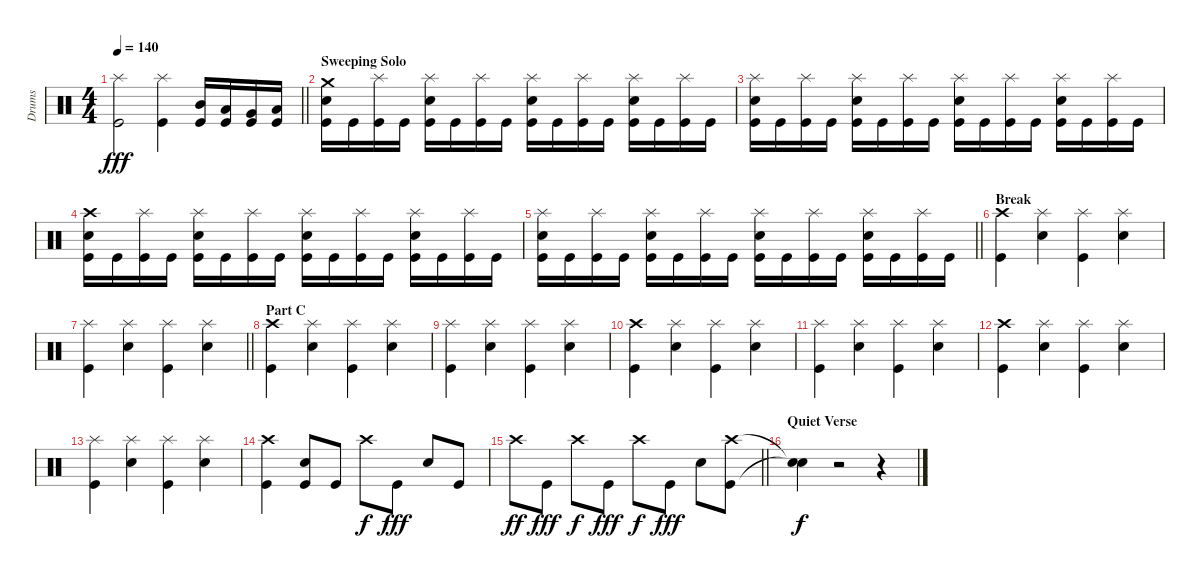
\track ("Drums" "Drums") {instrument percussion}
\staff {score}
\articulation defaults
\ts (4 4)
\tempo 140
\clef neutral
\barLineRight lightlight
\ks c
("Splash (hit)" "Kick (hit)").2{dy fff} ("Splash (hit)" "Kick (hit)").4 ("Mid Tom (hit)" "Kick (hit)").16 ("Low Tom (hit)" "Kick (hit)").16 ("Very Low Tom (hit)" "Kick (hit)").16 ("Low Floor Tom (hit)" "Kick (hit)").16 |
\section ("" "Sweeping Solo")
("Crash medium (hit)" "Electric Snare (hit)" "Kick (hit)").16 "Kick (hit)".16 ("Splash (hit)" "Kick (hit)").16 "Kick (hit)".16 ("Splash (hit)" "Electric Snare (hit)" "Kick (hit)").16 "Kick (hit)".16 ("Splash (hit)" "Kick (hit)").16 "Kick (hit)".16 ("Splash (hit)" "Electric Snare (hit)" "Kick (hit)").16 "Kick (hit)".16 ("Splash (hit)" "Kick (hit)").16 "Kick (hit)".16 ("Splash (hit)" "Electric Snare (hit)" "Kick (hit)").16 "Kick (hit)".16 ("Splash (hit)" "Kick (hit)").16 "Kick (hit)".16 |
("Splash (hit)" "Electric Snare (hit)" "Kick (hit)").16 "Kick (hit)".16 ("Splash (hit)" "Kick (hit)").16 "Kick (hit)".16 ("Splash (hit)" "Electric Snare (hit)" "Kick (hit)").16 "Kick (hit)".16 ("Splash (hit)" "Kick (hit)").16 "Kick (hit)".16 ("Splash (hit)" "Electric Snare (hit)" "Kick (hit)").16 "Kick (hit)".16 ("Splash (hit)" "Kick (hit)").16 "Kick (hit)".16 ("Splash (hit)" "Electric Snare (hit)" "Kick (hit)").16 "Kick (hit)".16 ("Splash (hit)" "Kick (hit)").16 "Kick (hit)".16 |
("Crash high (hit)" "Electric Snare (hit)" "Kick (hit)").16 "Kick (hit)".16 ("Splash (hit)" "Kick (hit)").16 "Kick (hit)".16 ("Splash (hit)" "Electric Snare (hit)" "Kick (hit)").16 "Kick (hit)".16 ("Splash (hit)" "Kick (hit)").16 "Kick (hit)".16 ("Splash (hit)" "Electric Snare (hit)" "Kick (hit)").16 "Kick (hit)".16 ("Splash (hit)" "Kick (hit)").16 "Kick (hit)".16 ("Splash (hit)" "Electric Snare (hit)" "Kick (hit)").16 "Kick (hit)".16 ("Splash (hit)" "Kick (hit)").16 "Kick (hit)".16 |
\barLineRight lightlight
("Splash (hit)" "Electric Snare (hit)" "Kick (hit)").16 "Kick (hit)".16 ("Splash (hit)" "Kick (hit)").16 "Kick (hit)".16 ("Splash (hit)" "Electric Snare (hit)" "Kick (hit)").16 "Kick (hit)".16 ("Splash (hit)" "Kick (hit)").16 "Kick (hit)".16 ("Splash (hit)" "Electric Snare (hit)" "Kick (hit)").16 "Kick (hit)".16 ("Splash (hit)" "Kick (hit)").16 "Kick (hit)".16 ("Splash (hit)" "Electric Snare (hit)" "Kick (hit)").16 "Kick (hit)".16 ("Splash (hit)" "Kick (hit)").16 "Kick (hit)".16 |
\section ("" "Break")
("Crash high (hit)" "Kick (hit)").4 ("Splash (hit)" "Electric Snare (hit)").4 ("Splash (hit)" "Kick (hit)").4 ("Splash (hit)" "Electric Snare (hit)").4 |
\barLineRight lightlight
("Splash (hit)" "Kick (hit)").4 ("Splash (hit)" "Electric Snare (hit)").4 ("Splash (hit)" "Kick (hit)").4 ("Splash (hit)" "Electric Snare (hit)").4 |
\section ("" "Part C")
("Crash high (hit)" "Kick (hit)").4 ("Splash (hit)" "Electric Snare (hit)").4 ("Splash (hit)" "Kick (hit)").4 ("Splash (hit)" "Electric Snare (hit)").4 |
("Splash (hit)" "Kick (hit)").4 ("Splash (hit)" "Electric Snare (hit)").4 ("Splash (hit)" "Kick (hit)").4 ("Splash (hit)" "Electric Snare (hit)").4 |
("Crash high (hit)" "Kick (hit)").4 ("Splash (hit)" "Electric Snare (hit)").4 ("Splash (hit)" "Kick (hit)").4 ("Splash (hit)" "Electric Snare (hit)").4 |
("Splash (hit)" "Kick (hit)").4 ("Splash (hit)" "Electric Snare (hit)").4 ("Splash (hit)" "Kick (hit)").4 ("Splash (hit)" "Electric Snare (hit)").4 |
("Crash high (hit)" "Kick (hit)").4 ("Splash (hit)" "Electric Snare (hit)").4 ("Splash (hit)" "Kick (hit)").4 ("Splash (hit)" "Electric Snare (hit)").4 |
("Splash (hit)" "Kick (hit)").4 ("Splash (hit)" "Electric Snare (hit)").4 ("Splash (hit)" "Kick (hit)").4 ("Splash (hit)" "Electric Snare (hit)").4 |
("Crash high (hit)" "Kick (hit)").4 ("Electric Snare (hit)" "Kick (hit)").8 "Kick (hit)".8 "Crash high (hit)".8{dy f} "Kick (hit)".8{dy fff} "Electric Snare (hit)".8 "Kick (hit)".8 |
\barLineRight lightlight "Crash high (hit)".8{dy ff} "Kick (hit)".8{dy fff} "Crash high (hit)".8{dy f} "Kick (hit)".8{dy fff} "Crash high (hit)".8{dy f} "Kick (hit)".8{dy fff} "Electric Snare (hit)".8
("Crash high (hit)" "Kick (hit)").8 |
\section ("" "Quiet Verse")
("Snare (hit)"{t} "Snare (hit)"{t}).4{dy f} r.2 r.4
